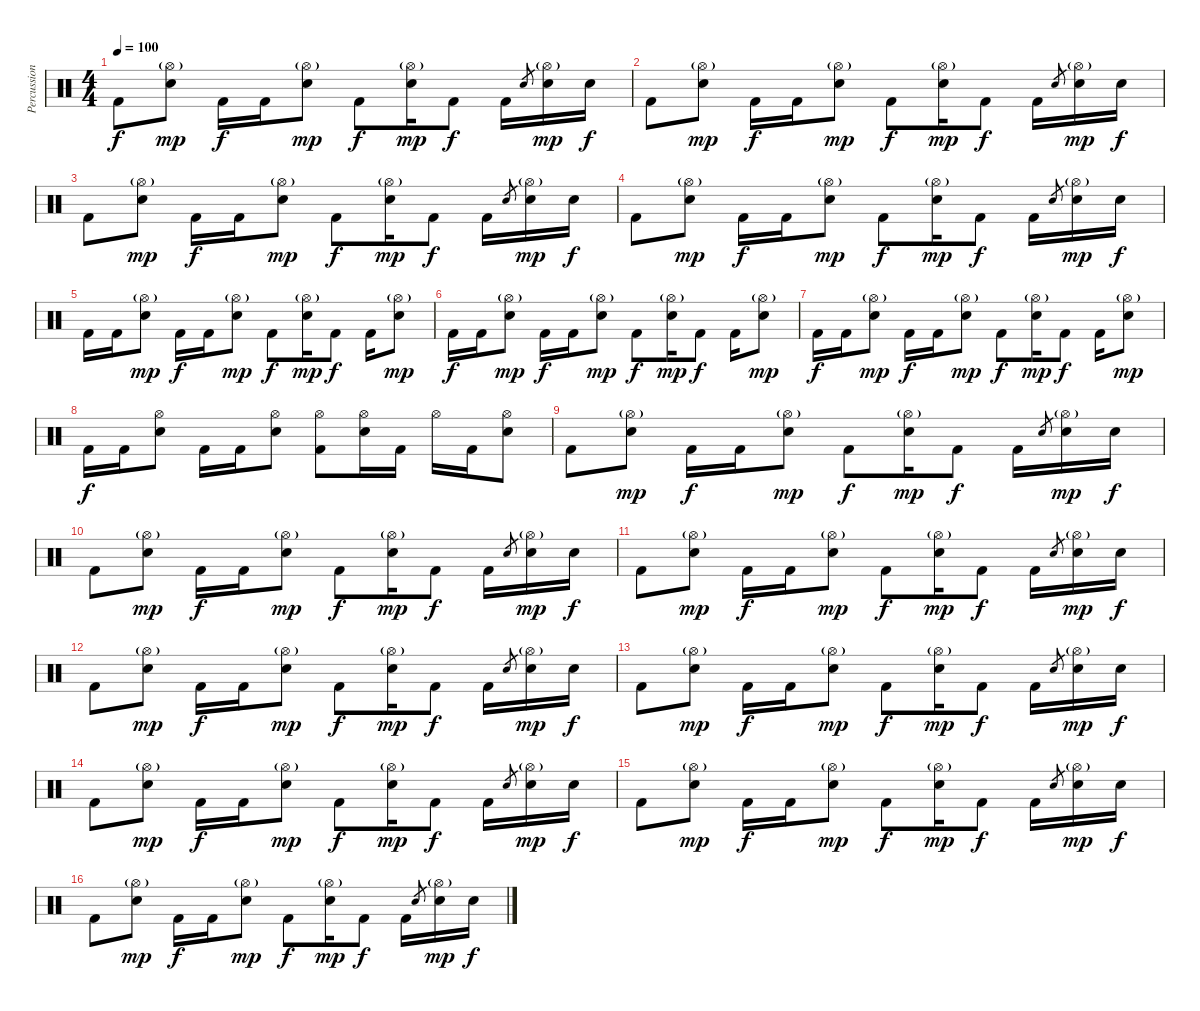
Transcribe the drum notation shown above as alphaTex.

\track ("Percussion" "Percussion") {instrument percussion}
\staff {score}
\articulation defaults
\ts (4 4)
\tempo 100
\clef neutral
\ks c "Kick (hit) 2".8{dy f}
("Hi-Hat (open)"{g} "Snare (hit) 2").8{dy mp} "Kick (hit) 2".16{dy f} "Kick (hit) 2".16 ("Hi-Hat (open)"{g} "Snare (hit) 2").8{dy mp} "Kick (hit) 2".8{dy f} ("Hi-Hat (open)"{g} "Snare (hit) 2").16{dy mp} "Kick (hit) 2".8{dy f} "Kick (hit) 2".16 "Snare (hit) 2".8{gr} ("Hi-Hat (open)"{g} "Snare (hit) 2").16{dy mp} "Snare (hit) 2".16{dy f} |
"Kick (hit) 2".8 ("Hi-Hat (open)"{g} "Snare (hit) 2").8{dy mp} "Kick (hit) 2".16{dy f} "Kick (hit) 2".16 ("Hi-Hat (open)"{g} "Snare (hit) 2").8{dy mp} "Kick (hit) 2".8{dy f} ("Hi-Hat (open)"{g} "Snare (hit) 2").16{dy mp} "Kick (hit) 2".8{dy f} "Kick (hit) 2".16 "Snare (hit) 2".8{gr} ("Hi-Hat (open)"{g} "Snare (hit) 2").16{dy mp} "Snare (hit) 2".16{dy f} |
"Kick (hit) 2".8 ("Hi-Hat (open)"{g} "Snare (hit) 2").8{dy mp} "Kick (hit) 2".16{dy f} "Kick (hit) 2".16 ("Hi-Hat (open)"{g} "Snare (hit) 2").8{dy mp} "Kick (hit) 2".8{dy f} ("Hi-Hat (open)"{g} "Snare (hit) 2").16{dy mp} "Kick (hit) 2".8{dy f} "Kick (hit) 2".16 "Snare (hit) 2".8{gr} ("Hi-Hat (open)"{g} "Snare (hit) 2").16{dy mp} "Snare (hit) 2".16{dy f} |
"Kick (hit) 2".8 ("Hi-Hat (open)"{g} "Snare (hit) 2").8{dy mp} "Kick (hit) 2".16{dy f} "Kick (hit) 2".16 ("Hi-Hat (open)"{g} "Snare (hit) 2").8{dy mp} "Kick (hit) 2".8{dy f} ("Hi-Hat (open)"{g} "Snare (hit) 2").16{dy mp} "Kick (hit) 2".8{dy f} "Kick (hit) 2".16 "Snare (hit) 2".8{gr} ("Hi-Hat (open)"{g} "Snare (hit) 2").16{dy mp} "Snare (hit) 2".16{dy f} |
"Kick (hit) 2".16 "Kick (hit) 2".16 ("Hi-Hat (open)"{g} "Snare (hit) 2").8{dy mp} "Kick (hit) 2".16{dy f} "Kick (hit) 2".16 ("Hi-Hat (open)"{g} "Snare (hit) 2").8{dy mp} "Kick (hit) 2".8{dy f} ("Hi-Hat (open)"{g} "Snare (hit) 2").16{dy mp} "Kick (hit) 2".8{dy f} "Kick (hit) 2".16 ("Hi-Hat (open)"{g} "Snare (hit) 2").8{dy mp} |
"Kick (hit) 2".16{dy f} "Kick (hit) 2".16 ("Hi-Hat (open)"{g} "Snare (hit) 2").8{dy mp} "Kick (hit) 2".16{dy f} "Kick (hit) 2".16 ("Hi-Hat (open)"{g} "Snare (hit) 2").8{dy mp} "Kick (hit) 2".8{dy f} ("Hi-Hat (open)"{g} "Snare (hit) 2").16{dy mp} "Kick (hit) 2".8{dy f} "Kick (hit) 2".16 ("Hi-Hat (open)"{g} "Snare (hit) 2").8{dy mp} |
"Kick (hit) 2".16{dy f} "Kick (hit) 2".16 ("Hi-Hat (open)"{g} "Snare (hit) 2").8{dy mp} "Kick (hit) 2".16{dy f} "Kick (hit) 2".16 ("Hi-Hat (open)"{g} "Snare (hit) 2").8{dy mp} "Kick (hit) 2".8{dy f} ("Hi-Hat (open)"{g} "Snare (hit) 2").16{dy mp} "Kick (hit) 2".8{dy f} "Kick (hit) 2".16 ("Hi-Hat (open)"{g} "Snare (hit) 2").8{dy mp} |
"Kick (hit) 2".16{dy f} "Kick (hit) 2".16 ("Hi-Hat (open)" "Snare (hit) 2").8 "Kick (hit) 2".16 "Kick (hit) 2".16 ("Hi-Hat (open)" "Snare (hit) 2").8 ("Hi-Hat (open)" "Kick (hit) 2").8 ("Hi-Hat (open)" "Snare (hit) 2").16 "Kick (hit) 2".16 "Hi-Hat (open)".16 "Kick (hit) 2".16 ("Hi-Hat (open)" "Snare (hit) 2").8 |
"Kick (hit) 2".8 ("Hi-Hat (open)"{g} "Snare (hit) 2").8{dy mp} "Kick (hit) 2".16{dy f} "Kick (hit) 2".16 ("Hi-Hat (open)"{g} "Snare (hit) 2").8{dy mp} "Kick (hit) 2".8{dy f} ("Hi-Hat (open)"{g} "Snare (hit) 2").16{dy mp} "Kick (hit) 2".8{dy f} "Kick (hit) 2".16 "Snare (hit) 2".8{gr} ("Hi-Hat (open)"{g} "Snare (hit) 2").16{dy mp} "Snare (hit) 2".16{dy f} |
"Kick (hit) 2".8 ("Hi-Hat (open)"{g} "Snare (hit) 2").8{dy mp} "Kick (hit) 2".16{dy f} "Kick (hit) 2".16 ("Hi-Hat (open)"{g} "Snare (hit) 2").8{dy mp} "Kick (hit) 2".8{dy f} ("Hi-Hat (open)"{g} "Snare (hit) 2").16{dy mp} "Kick (hit) 2".8{dy f} "Kick (hit) 2".16 "Snare (hit) 2".8{gr} ("Hi-Hat (open)"{g} "Snare (hit) 2").16{dy mp} "Snare (hit) 2".16{dy f} |
"Kick (hit) 2".8 ("Hi-Hat (open)"{g} "Snare (hit) 2").8{dy mp} "Kick (hit) 2".16{dy f} "Kick (hit) 2".16 ("Hi-Hat (open)"{g} "Snare (hit) 2").8{dy mp} "Kick (hit) 2".8{dy f} ("Hi-Hat (open)"{g} "Snare (hit) 2").16{dy mp} "Kick (hit) 2".8{dy f} "Kick (hit) 2".16 "Snare (hit) 2".8{gr} ("Hi-Hat (open)"{g} "Snare (hit) 2").16{dy mp} "Snare (hit) 2".16{dy f} |
"Kick (hit) 2".8 ("Hi-Hat (open)"{g} "Snare (hit) 2").8{dy mp} "Kick (hit) 2".16{dy f} "Kick (hit) 2".16 ("Hi-Hat (open)"{g} "Snare (hit) 2").8{dy mp} "Kick (hit) 2".8{dy f} ("Hi-Hat (open)"{g} "Snare (hit) 2").16{dy mp} "Kick (hit) 2".8{dy f} "Kick (hit) 2".16 "Snare (hit) 2".8{gr} ("Hi-Hat (open)"{g} "Snare (hit) 2").16{dy mp} "Snare (hit) 2".16{dy f} |
"Kick (hit) 2".8 ("Hi-Hat (open)"{g} "Snare (hit) 2").8{dy mp} "Kick (hit) 2".16{dy f} "Kick (hit) 2".16 ("Hi-Hat (open)"{g} "Snare (hit) 2").8{dy mp} "Kick (hit) 2".8{dy f} ("Hi-Hat (open)"{g} "Snare (hit) 2").16{dy mp} "Kick (hit) 2".8{dy f} "Kick (hit) 2".16 "Snare (hit) 2".8{gr} ("Hi-Hat (open)"{g} "Snare (hit) 2").16{dy mp} "Snare (hit) 2".16{dy f} |
"Kick (hit) 2".8 ("Hi-Hat (open)"{g} "Snare (hit) 2").8{dy mp} "Kick (hit) 2".16{dy f} "Kick (hit) 2".16 ("Hi-Hat (open)"{g} "Snare (hit) 2").8{dy mp} "Kick (hit) 2".8{dy f} ("Hi-Hat (open)"{g} "Snare (hit) 2").16{dy mp} "Kick (hit) 2".8{dy f} "Kick (hit) 2".16 "Snare (hit) 2".8{gr} ("Hi-Hat (open)"{g} "Snare (hit) 2").16{dy mp} "Snare (hit) 2".16{dy f} |
"Kick (hit) 2".8 ("Hi-Hat (open)"{g} "Snare (hit) 2").8{dy mp} "Kick (hit) 2".16{dy f} "Kick (hit) 2".16 ("Hi-Hat (open)"{g} "Snare (hit) 2").8{dy mp} "Kick (hit) 2".8{dy f} ("Hi-Hat (open)"{g} "Snare (hit) 2").16{dy mp} "Kick (hit) 2".8{dy f} "Kick (hit) 2".16 "Snare (hit) 2".8{gr} ("Hi-Hat (open)"{g} "Snare (hit) 2").16{dy mp} "Snare (hit) 2".16{dy f} |
"Kick (hit) 2".8 ("Hi-Hat (open)"{g} "Snare (hit) 2").8{dy mp} "Kick (hit) 2".16{dy f} "Kick (hit) 2".16 ("Hi-Hat (open)"{g} "Snare (hit) 2").8{dy mp} "Kick (hit) 2".8{dy f} ("Hi-Hat (open)"{g} "Snare (hit) 2").16{dy mp} "Kick (hit) 2".8{dy f} "Kick (hit) 2".16 "Snare (hit) 2".8{gr} ("Hi-Hat (open)"{g} "Snare (hit) 2").16{dy mp} "Snare (hit) 2".16{dy f}
